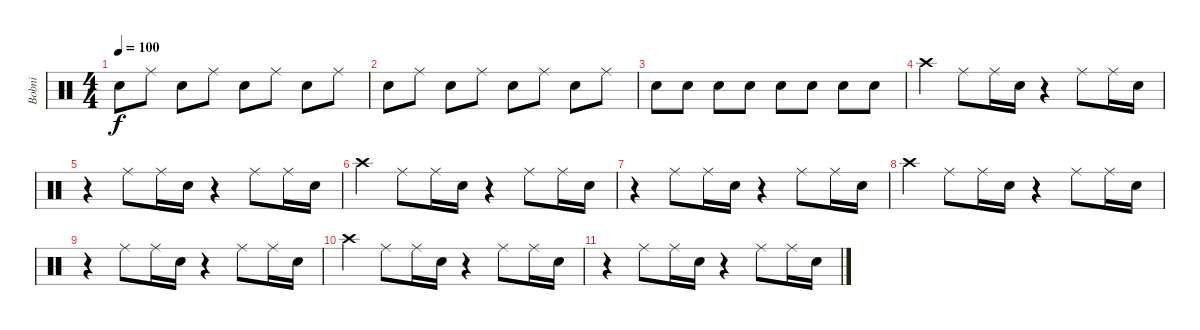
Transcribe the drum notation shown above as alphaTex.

\track ("Bobni" "Bobni") {instrument percussion}
\staff {score}
\articulation defaults
\ts (4 4)
\tempo 100
\clef neutral
\ks c "Snare (hit) 2".8{dy f} "Ride (middle)".8 "Snare (hit) 2".8 "Ride (middle)".8 "Snare (hit) 2".8 "Ride (middle)".8 "Snare (hit) 2".8 "Ride (middle)".8
|
"Snare (hit) 2".8 "Ride (middle)".8 "Snare (hit) 2".8 "Ride (middle)".8 "Snare (hit) 2".8 "Ride (middle)".8 "Snare (hit) 2".8 "Ride (middle)".8 |
"Snare (hit) 2".8 "Snare (hit) 2".8 "Snare (hit) 2".8 "Snare (hit) 2".8 "Snare (hit) 2".8 "Snare (hit) 2".8 "Snare (hit) 2".8 "Snare (hit) 2".8 |
"Crash high (hit)".4 "Ride (middle)".8 "Ride (middle)".16 "Snare (hit) 2".16 r.4 "Ride (middle)".8 "Ride (middle)".16 "Snare (hit) 2".16 |
r.4 "Ride (middle)".8 "Ride (middle)".16 "Snare (hit) 2".16 r.4 "Ride (middle)".8 "Ride (middle)".16 "Snare (hit) 2".16 |
"Crash high (hit)".4 "Ride (middle)".8 "Ride (middle)".16 "Snare (hit) 2".16 r.4 "Ride (middle)".8 "Ride (middle)".16 "Snare (hit) 2".16 |
r.4 "Ride (middle)".8 "Ride (middle)".16 "Snare (hit) 2".16 r.4 "Ride (middle)".8 "Ride (middle)".16 "Snare (hit) 2".16 |
"Crash high (hit)".4 "Ride (middle)".8 "Ride (middle)".16 "Snare (hit) 2".16 r.4 "Ride (middle)".8 "Ride (middle)".16 "Snare (hit) 2".16 |
r.4 "Ride (middle)".8 "Ride (middle)".16 "Snare (hit) 2".16 r.4 "Ride (middle)".8 "Ride (middle)".16 "Snare (hit) 2".16 |
"Crash high (hit)".4 "Ride (middle)".8 "Ride (middle)".16 "Snare (hit) 2".16 r.4 "Ride (middle)".8 "Ride (middle)".16 "Snare (hit) 2".16 |
r.4 "Ride (middle)".8 "Ride (middle)".16 "Snare (hit) 2".16 r.4 "Ride (middle)".8 "Ride (middle)".16 "Snare (hit) 2".16
